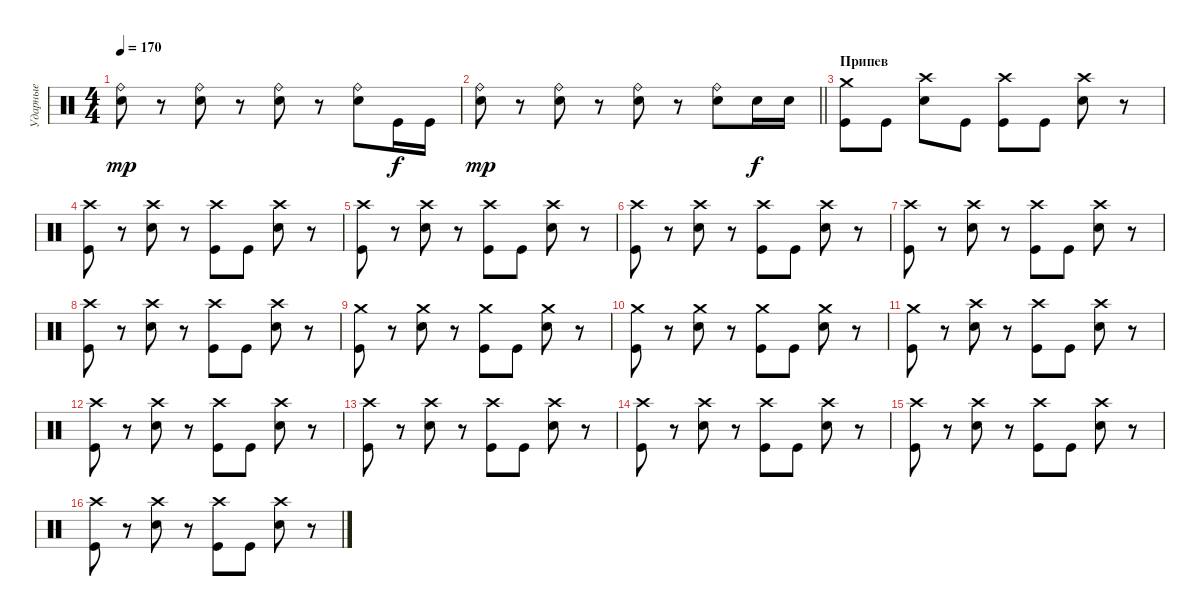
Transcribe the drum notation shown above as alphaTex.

\track ("Ударные" "Ударные") {instrument percussion}
\staff {score}
\articulation defaults
\ts (4 4)
\tempo 170
\clef neutral
\ks c
("Ride (bell)" "Electric Snare (hit)").8{dy mp} r.8 ("Ride (bell)" "Electric Snare (hit)").8 r.8 ("Ride (bell)" "Electric Snare (hit)").8 r.8 ("Ride (bell)" "Electric Snare (hit)").8 "Kick (hit)".16{dy f} "Kick (hit)".16 |
\barLineRight lightlight
("Ride (bell)" "Electric Snare (hit)").8{dy mp} r.8 ("Ride (bell)" "Electric Snare (hit)").8 r.8 ("Ride (bell)" "Electric Snare (hit)").8 r.8 ("Ride (bell)" "Electric Snare (hit)").8 "Electric Snare (hit)".16{dy f} "Electric Snare (hit)".16 |
\section ("" "Припев")
("Crash medium (hit)" "Kick (hit)").8 "Kick (hit)".8 ("Crash high (hit)" "Electric Snare (hit)").8 "Kick (hit)".8 ("Crash high (hit)" "Kick (hit)").8 "Kick (hit)".8 ("Crash high (hit)" "Electric Snare (hit)").8 r.8 |
("Crash high (hit)" "Kick (hit)").8 r.8 ("Crash high (hit)" "Electric Snare (hit)").8 r.8 ("Crash high (hit)" "Kick (hit)").8 "Kick (hit)".8 ("Crash high (hit)" "Electric Snare (hit)").8 r.8 |
("Crash high (hit)" "Kick (hit)").8 r.8 ("Crash high (hit)" "Electric Snare (hit)").8 r.8 ("Crash high (hit)" "Kick (hit)").8 "Kick (hit)".8 ("Crash high (hit)" "Electric Snare (hit)").8 r.8 |
("Crash high (hit)" "Kick (hit)").8 r.8 ("Crash high (hit)" "Electric Snare (hit)").8 r.8 ("Crash high (hit)" "Kick (hit)").8 "Kick (hit)".8 ("Crash high (hit)" "Electric Snare (hit)").8 r.8 |
("Crash high (hit)" "Kick (hit)").8 r.8 ("Crash high (hit)" "Electric Snare (hit)").8 r.8 ("Crash high (hit)" "Kick (hit)").8 "Kick (hit)".8 ("Crash high (hit)" "Electric Snare (hit)").8 r.8 |
("Crash high (hit)" "Kick (hit)").8 r.8 ("Crash high (hit)" "Electric Snare (hit)").8 r.8 ("Crash high (hit)" "Kick (hit)").8 "Kick (hit)".8 ("Crash high (hit)" "Electric Snare (hit)").8 r.8 |
("Crash medium (hit)" "Kick (hit)").8 r.8 ("Crash medium (hit)" "Electric Snare (hit)").8 r.8 ("Crash medium (hit)" "Kick (hit)").8 "Kick (hit)".8 ("Crash medium (hit)" "Electric Snare (hit)").8 r.8 |
("Crash medium (hit)" "Kick (hit)").8 r.8 ("Crash medium (hit)" "Electric Snare (hit)").8 r.8 ("Crash medium (hit)" "Kick (hit)").8 "Kick (hit)".8 ("Crash medium (hit)" "Electric Snare (hit)").8 r.8 |
("Crash medium (hit)" "Kick (hit)").8 r.8 ("Crash high (hit)" "Electric Snare (hit)").8 r.8 ("Crash high (hit)" "Kick (hit)").8 "Kick (hit)".8 ("Crash high (hit)" "Electric Snare (hit)").8 r.8 |
("Crash high (hit)" "Kick (hit)").8 r.8 ("Crash high (hit)" "Electric Snare (hit)").8 r.8 ("Crash high (hit)" "Kick (hit)").8 "Kick (hit)".8 ("Crash high (hit)" "Electric Snare (hit)").8 r.8 |
("Crash high (hit)" "Kick (hit)").8 r.8 ("Crash high (hit)" "Electric Snare (hit)").8 r.8 ("Crash high (hit)" "Kick (hit)").8 "Kick (hit)".8 ("Crash high (hit)" "Electric Snare (hit)").8 r.8 |
("Crash high (hit)" "Kick (hit)").8 r.8 ("Crash high (hit)" "Electric Snare (hit)").8 r.8 ("Crash high (hit)" "Kick (hit)").8 "Kick (hit)".8 ("Crash high (hit)" "Electric Snare (hit)").8 r.8 |
("Crash high (hit)" "Kick (hit)").8 r.8 ("Crash high (hit)" "Electric Snare (hit)").8 r.8 ("Crash high (hit)" "Kick (hit)").8 "Kick (hit)".8 ("Crash high (hit)" "Electric Snare (hit)").8 r.8 |
("Crash high (hit)" "Kick (hit)").8 r.8 ("Crash high (hit)" "Electric Snare (hit)").8 r.8 ("Crash high (hit)" "Kick (hit)").8 "Kick (hit)".8 ("Crash high (hit)" "Electric Snare (hit)").8 r.8
